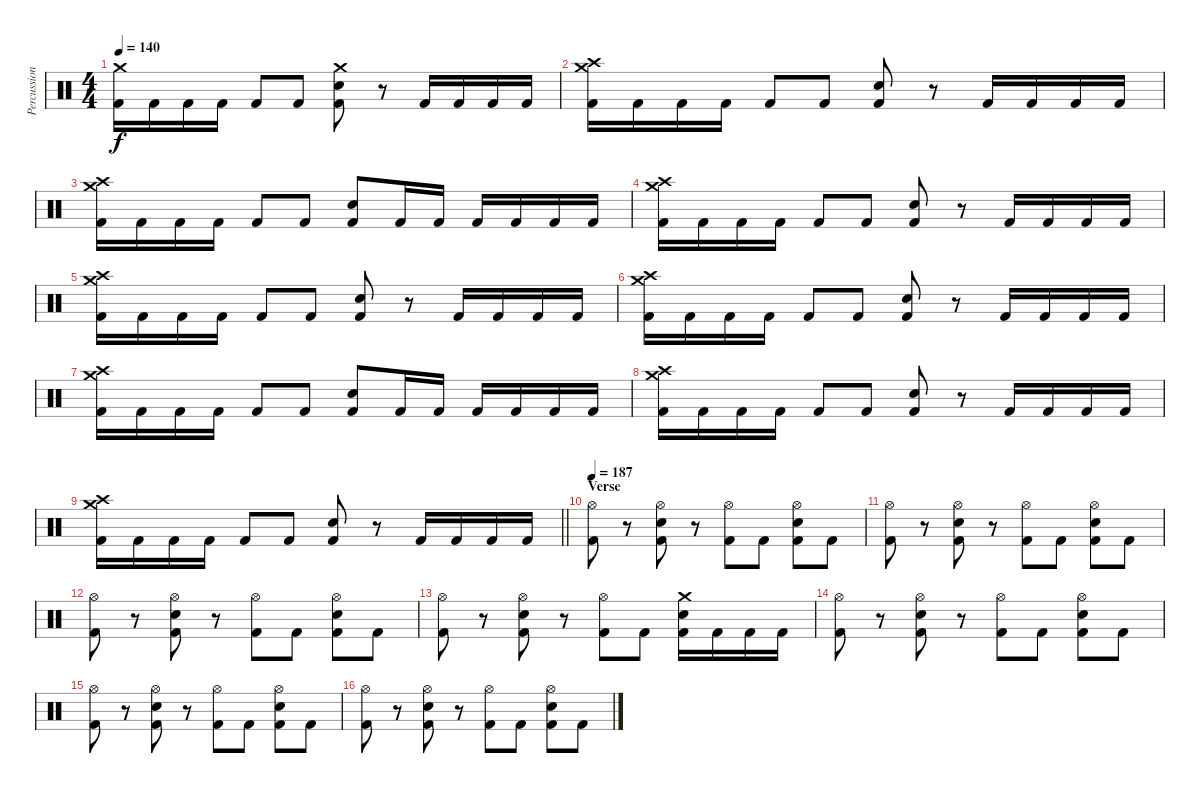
\track ("Percussion" "Percussion") {instrument percussion}
\staff {score}
\articulation defaults
\ts (4 4)
\tempo 140
\clef neutral
\ks c
("Crash medium (hit)" "Kick (hit) 2").16{dy f} "Kick (hit) 2".16 "Kick (hit) 2".16 "Kick (hit) 2".16 "Kick (hit) 2".8 "Kick (hit) 2".8 ("Crash medium (hit)" "Electric Snare (hit)" "Kick (hit) 2").8 r.8 "Kick (hit) 2".16 "Kick (hit) 2".16 "Kick (hit) 2".16 "Kick (hit) 2".16 |
("Crash medium (hit)" "Crash high (hit)" "Kick (hit) 2").16 "Kick (hit) 2".16 "Kick (hit) 2".16 "Kick (hit) 2".16 "Kick (hit) 2".8 "Kick (hit) 2".8 ("Electric Snare (hit)" "Kick (hit) 2").8 r.8 "Kick (hit) 2".16 "Kick (hit) 2".16 "Kick (hit) 2".16 "Kick (hit) 2".16 |
("Crash medium (hit)" "Crash high (hit)" "Kick (hit) 2").16 "Kick (hit) 2".16 "Kick (hit) 2".16 "Kick (hit) 2".16 "Kick (hit) 2".8 "Kick (hit) 2".8 ("Electric Snare (hit)" "Kick (hit) 2").8 "Kick (hit) 2".16 "Kick (hit) 2".16 "Kick (hit) 2".16 "Kick (hit) 2".16 "Kick (hit) 2".16 "Kick (hit) 2".16 |
("Crash medium (hit)" "Crash high (hit)" "Kick (hit) 2").16 "Kick (hit) 2".16 "Kick (hit) 2".16 "Kick (hit) 2".16 "Kick (hit) 2".8 "Kick (hit) 2".8 ("Electric Snare (hit)" "Kick (hit) 2").8 r.8 "Kick (hit) 2".16 "Kick (hit) 2".16 "Kick (hit) 2".16 "Kick (hit) 2".16 |
("Crash medium (hit)" "Crash high (hit)" "Kick (hit) 2").16 "Kick (hit) 2".16 "Kick (hit) 2".16 "Kick (hit) 2".16 "Kick (hit) 2".8 "Kick (hit) 2".8 ("Electric Snare (hit)" "Kick (hit) 2").8 r.8 "Kick (hit) 2".16 "Kick (hit) 2".16 "Kick (hit) 2".16 "Kick (hit) 2".16 |
("Crash medium (hit)" "Crash high (hit)" "Kick (hit) 2").16 "Kick (hit) 2".16 "Kick (hit) 2".16 "Kick (hit) 2".16 "Kick (hit) 2".8 "Kick (hit) 2".8 ("Electric Snare (hit)" "Kick (hit) 2").8 r.8 "Kick (hit) 2".16 "Kick (hit) 2".16 "Kick (hit) 2".16 "Kick (hit) 2".16 |
("Crash medium (hit)" "Crash high (hit)" "Kick (hit) 2").16 "Kick (hit) 2".16 "Kick (hit) 2".16 "Kick (hit) 2".16 "Kick (hit) 2".8 "Kick (hit) 2".8 ("Electric Snare (hit)" "Kick (hit) 2").8 "Kick (hit) 2".16 "Kick (hit) 2".16 "Kick (hit) 2".16 "Kick (hit) 2".16 "Kick (hit) 2".16 "Kick (hit) 2".16 |
("Crash medium (hit)" "Crash high (hit)" "Kick (hit) 2").16 "Kick (hit) 2".16 "Kick (hit) 2".16 "Kick (hit) 2".16 "Kick (hit) 2".8 "Kick (hit) 2".8 ("Electric Snare (hit)" "Kick (hit) 2").8 r.8 "Kick (hit) 2".16 "Kick (hit) 2".16 "Kick (hit) 2".16 "Kick (hit) 2".16 |
\barLineRight lightlight
("Crash medium (hit)" "Crash high (hit)" "Kick (hit) 2").16 "Kick (hit) 2".16 "Kick (hit) 2".16 "Kick (hit) 2".16 "Kick (hit) 2".8 "Kick (hit) 2".8 ("Electric Snare (hit)" "Kick (hit) 2").8 r.8 "Kick (hit) 2".16 "Kick (hit) 2".16 "Kick (hit) 2".16 "Kick (hit) 2".16 |
\section ("" "Verse")
\tempo 187
("Hi-Hat (open)" "Kick (hit) 2").8 r.8 ("Hi-Hat (open)" "Electric Snare (hit)" "Kick (hit) 2").8 r.8 ("Hi-Hat (open)" "Kick (hit) 2").8 "Kick (hit) 2".8 ("Hi-Hat (open)" "Electric Snare (hit)" "Kick (hit) 2").8 "Kick (hit) 2".8 |
("Hi-Hat (open)" "Kick (hit) 2").8 r.8 ("Hi-Hat (open)" "Electric Snare (hit)" "Kick (hit) 2").8 r.8 ("Hi-Hat (open)" "Kick (hit) 2").8 "Kick (hit) 2".8 ("Hi-Hat (open)" "Electric Snare (hit)" "Kick (hit) 2").8 "Kick (hit) 2".8 |
("Hi-Hat (open)" "Kick (hit) 2").8 r.8 ("Hi-Hat (open)" "Electric Snare (hit)" "Kick (hit) 2").8 r.8 ("Hi-Hat (open)" "Kick (hit) 2").8 "Kick (hit) 2".8 ("Hi-Hat (open)" "Electric Snare (hit)" "Kick (hit) 2").8 "Kick (hit) 2".8 |
("Hi-Hat (open)" "Kick (hit) 2").8 r.8 ("Hi-Hat (open)" "Electric Snare (hit)" "Kick (hit) 2").8 r.8 ("Hi-Hat (open)" "Kick (hit) 2").8 "Kick (hit) 2".8 ("Crash medium (hit)" "Electric Snare (hit)" "Kick (hit) 2").16 "Kick (hit) 2".16 "Kick (hit) 2".16 "Kick (hit) 2".16 |
("Hi-Hat (open)" "Kick (hit) 2").8 r.8 ("Hi-Hat (open)" "Electric Snare (hit)" "Kick (hit) 2").8 r.8 ("Hi-Hat (open)" "Kick (hit) 2").8 "Kick (hit) 2".8 ("Hi-Hat (open)" "Electric Snare (hit)" "Kick (hit) 2").8 "Kick (hit) 2".8 |
("Hi-Hat (open)" "Kick (hit) 2").8 r.8 ("Hi-Hat (open)" "Electric Snare (hit)" "Kick (hit) 2").8 r.8 ("Hi-Hat (open)" "Kick (hit) 2").8 "Kick (hit) 2".8 ("Hi-Hat (open)" "Electric Snare (hit)" "Kick (hit) 2").8 "Kick (hit) 2".8 |
("Hi-Hat (open)" "Kick (hit) 2").8 r.8 ("Hi-Hat (open)" "Electric Snare (hit)" "Kick (hit) 2").8 r.8 ("Hi-Hat (open)" "Kick (hit) 2").8 "Kick (hit) 2".8 ("Hi-Hat (open)" "Electric Snare (hit)" "Kick (hit) 2").8 "Kick (hit) 2".8
